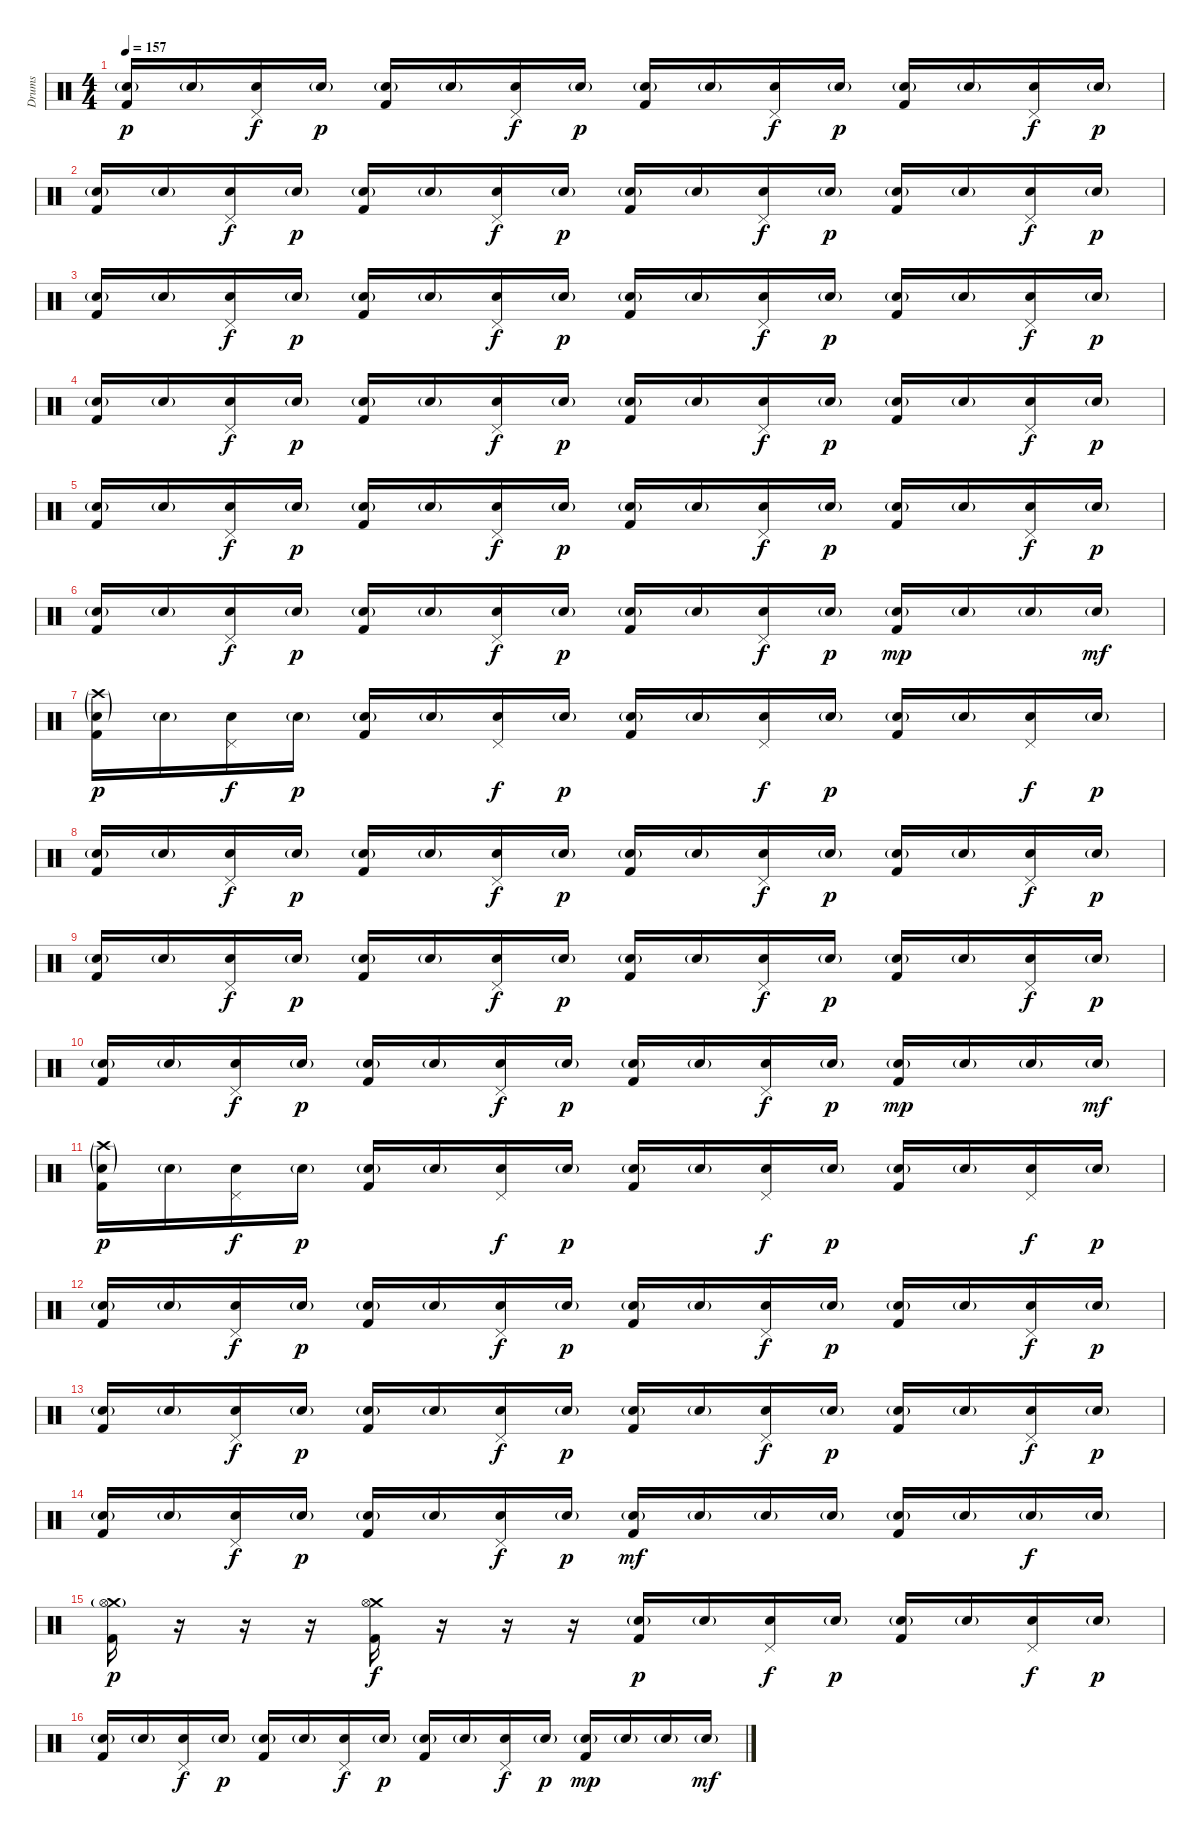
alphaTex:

\track ("Drums" "Drums") {instrument percussion}
\staff {score}
\articulation defaults
\ts (4 4)
\tempo 157
\clef neutral
\ks c
("Electric Snare (hit)"{g} "Kick (hit) 2").16{dy p} "Electric Snare (hit)"{g}.16 ("Pedal Hi-Hat (hit)" "Electric Snare (hit)").16{dy f} "Electric Snare (hit)"{g}.16{dy p} ("Electric Snare (hit)"{g} "Kick (hit) 2").16 "Electric Snare (hit)"{g}.16 ("Pedal Hi-Hat (hit)" "Electric Snare (hit)").16{dy f} "Electric Snare (hit)"{g}.16{dy p} ("Electric Snare (hit)"{g} "Kick (hit) 2").16 "Electric Snare (hit)"{g}.16 ("Pedal Hi-Hat (hit)" "Electric Snare (hit)").16{dy f} "Electric Snare (hit)"{g}.16{dy p} ("Electric Snare (hit)"{g} "Kick (hit) 2").16 "Electric Snare (hit)"{g}.16 ("Pedal Hi-Hat (hit)" "Electric Snare (hit)").16{dy f} "Electric Snare (hit)"{g}.16{dy p} |
("Electric Snare (hit)"{g} "Kick (hit) 2").16 "Electric Snare (hit)"{g}.16 ("Pedal Hi-Hat (hit)" "Electric Snare (hit)").16{dy f} "Electric Snare (hit)"{g}.16{dy p} ("Electric Snare (hit)"{g} "Kick (hit) 2").16 "Electric Snare (hit)"{g}.16 ("Pedal Hi-Hat (hit)" "Electric Snare (hit)").16{dy f} "Electric Snare (hit)"{g}.16{dy p} ("Electric Snare (hit)"{g} "Kick (hit) 2").16 "Electric Snare (hit)"{g}.16 ("Pedal Hi-Hat (hit)" "Electric Snare (hit)").16{dy f} "Electric Snare (hit)"{g}.16{dy p} ("Electric Snare (hit)"{g} "Kick (hit) 2").16 "Electric Snare (hit)"{g}.16 ("Pedal Hi-Hat (hit)" "Electric Snare (hit)").16{dy f} "Electric Snare (hit)"{g}.16{dy p} |
("Electric Snare (hit)"{g} "Kick (hit) 2").16 "Electric Snare (hit)"{g}.16 ("Pedal Hi-Hat (hit)" "Electric Snare (hit)").16{dy f} "Electric Snare (hit)"{g}.16{dy p} ("Electric Snare (hit)"{g} "Kick (hit) 2").16 "Electric Snare (hit)"{g}.16 ("Pedal Hi-Hat (hit)" "Electric Snare (hit)").16{dy f} "Electric Snare (hit)"{g}.16{dy p} ("Electric Snare (hit)"{g} "Kick (hit) 2").16 "Electric Snare (hit)"{g}.16 ("Pedal Hi-Hat (hit)" "Electric Snare (hit)").16{dy f} "Electric Snare (hit)"{g}.16{dy p} ("Electric Snare (hit)"{g} "Kick (hit) 2").16 "Electric Snare (hit)"{g}.16 ("Pedal Hi-Hat (hit)" "Electric Snare (hit)").16{dy f} "Electric Snare (hit)"{g}.16{dy p} |
("Electric Snare (hit)"{g} "Kick (hit) 2").16 "Electric Snare (hit)"{g}.16 ("Pedal Hi-Hat (hit)" "Electric Snare (hit)").16{dy f} "Electric Snare (hit)"{g}.16{dy p} ("Electric Snare (hit)"{g} "Kick (hit) 2").16 "Electric Snare (hit)"{g}.16 ("Pedal Hi-Hat (hit)" "Electric Snare (hit)").16{dy f} "Electric Snare (hit)"{g}.16{dy p} ("Electric Snare (hit)"{g} "Kick (hit) 2").16 "Electric Snare (hit)"{g}.16 ("Pedal Hi-Hat (hit)" "Electric Snare (hit)").16{dy f} "Electric Snare (hit)"{g}.16{dy p} ("Electric Snare (hit)"{g} "Kick (hit) 2").16 "Electric Snare (hit)"{g}.16 ("Pedal Hi-Hat (hit)" "Electric Snare (hit)").16{dy f} "Electric Snare (hit)"{g}.16{dy p} |
("Electric Snare (hit)"{g} "Kick (hit) 2").16 "Electric Snare (hit)"{g}.16 ("Pedal Hi-Hat (hit)" "Electric Snare (hit)").16{dy f} "Electric Snare (hit)"{g}.16{dy p} ("Electric Snare (hit)"{g} "Kick (hit) 2").16 "Electric Snare (hit)"{g}.16 ("Pedal Hi-Hat (hit)" "Electric Snare (hit)").16{dy f} "Electric Snare (hit)"{g}.16{dy p} ("Electric Snare (hit)"{g} "Kick (hit) 2").16 "Electric Snare (hit)"{g}.16 ("Pedal Hi-Hat (hit)" "Electric Snare (hit)").16{dy f} "Electric Snare (hit)"{g}.16{dy p} ("Electric Snare (hit)"{g} "Kick (hit) 2").16 "Electric Snare (hit)"{g}.16 ("Pedal Hi-Hat (hit)" "Electric Snare (hit)").16{dy f} "Electric Snare (hit)"{g}.16{dy p} |
("Electric Snare (hit)"{g} "Kick (hit) 2").16 "Electric Snare (hit)"{g}.16 ("Pedal Hi-Hat (hit)" "Electric Snare (hit)").16{dy f} "Electric Snare (hit)"{g}.16{dy p} ("Electric Snare (hit)"{g} "Kick (hit) 2").16 "Electric Snare (hit)"{g}.16 ("Pedal Hi-Hat (hit)" "Electric Snare (hit)").16{dy f} "Electric Snare (hit)"{g}.16{dy p} ("Electric Snare (hit)"{g} "Kick (hit) 2").16 "Electric Snare (hit)"{g}.16 ("Pedal Hi-Hat (hit)" "Electric Snare (hit)").16{dy f} "Electric Snare (hit)"{g}.16{dy p} ("Electric Snare (hit)"{g} "Kick (hit) 2").16{dy mp} "Electric Snare (hit)"{g}.16 "Electric Snare (hit)"{g}.16 "Electric Snare (hit)"{g}.16{dy mf} |
("Crash high (hit)"{g} "Electric Snare (hit)"{g} "Kick (hit) 2").16{dy p} "Electric Snare (hit)"{g}.16 ("Pedal Hi-Hat (hit)" "Electric Snare (hit)").16{dy f} "Electric Snare (hit)"{g}.16{dy p} ("Electric Snare (hit)"{g} "Kick (hit) 2").16 "Electric Snare (hit)"{g}.16 ("Pedal Hi-Hat (hit)" "Electric Snare (hit)").16{dy f} "Electric Snare (hit)"{g}.16{dy p} ("Electric Snare (hit)"{g} "Kick (hit) 2").16 "Electric Snare (hit)"{g}.16 ("Pedal Hi-Hat (hit)" "Electric Snare (hit)").16{dy f} "Electric Snare (hit)"{g}.16{dy p} ("Electric Snare (hit)"{g} "Kick (hit) 2").16 "Electric Snare (hit)"{g}.16 ("Pedal Hi-Hat (hit)" "Electric Snare (hit)").16{dy f} "Electric Snare (hit)"{g}.16{dy p} |
("Electric Snare (hit)"{g} "Kick (hit) 2").16 "Electric Snare (hit)"{g}.16 ("Pedal Hi-Hat (hit)" "Electric Snare (hit)").16{dy f} "Electric Snare (hit)"{g}.16{dy p} ("Electric Snare (hit)"{g} "Kick (hit) 2").16 "Electric Snare (hit)"{g}.16 ("Pedal Hi-Hat (hit)" "Electric Snare (hit)").16{dy f} "Electric Snare (hit)"{g}.16{dy p} ("Electric Snare (hit)"{g} "Kick (hit) 2").16 "Electric Snare (hit)"{g}.16 ("Pedal Hi-Hat (hit)" "Electric Snare (hit)").16{dy f} "Electric Snare (hit)"{g}.16{dy p} ("Electric Snare (hit)"{g} "Kick (hit) 2").16 "Electric Snare (hit)"{g}.16 ("Pedal Hi-Hat (hit)" "Electric Snare (hit)").16{dy f} "Electric Snare (hit)"{g}.16{dy p} |
("Electric Snare (hit)"{g} "Kick (hit) 2").16 "Electric Snare (hit)"{g}.16 ("Pedal Hi-Hat (hit)" "Electric Snare (hit)").16{dy f} "Electric Snare (hit)"{g}.16{dy p} ("Electric Snare (hit)"{g} "Kick (hit) 2").16 "Electric Snare (hit)"{g}.16 ("Pedal Hi-Hat (hit)" "Electric Snare (hit)").16{dy f} "Electric Snare (hit)"{g}.16{dy p} ("Electric Snare (hit)"{g} "Kick (hit) 2").16 "Electric Snare (hit)"{g}.16 ("Pedal Hi-Hat (hit)" "Electric Snare (hit)").16{dy f} "Electric Snare (hit)"{g}.16{dy p} ("Electric Snare (hit)"{g} "Kick (hit) 2").16 "Electric Snare (hit)"{g}.16 ("Pedal Hi-Hat (hit)" "Electric Snare (hit)").16{dy f} "Electric Snare (hit)"{g}.16{dy p} |
("Electric Snare (hit)"{g} "Kick (hit) 2").16 "Electric Snare (hit)"{g}.16 ("Pedal Hi-Hat (hit)" "Electric Snare (hit)").16{dy f} "Electric Snare (hit)"{g}.16{dy p} ("Electric Snare (hit)"{g} "Kick (hit) 2").16 "Electric Snare (hit)"{g}.16 ("Pedal Hi-Hat (hit)" "Electric Snare (hit)").16{dy f} "Electric Snare (hit)"{g}.16{dy p} ("Electric Snare (hit)"{g} "Kick (hit) 2").16 "Electric Snare (hit)"{g}.16 ("Pedal Hi-Hat (hit)" "Electric Snare (hit)").16{dy f} "Electric Snare (hit)"{g}.16{dy p} ("Electric Snare (hit)"{g} "Kick (hit) 2").16{dy mp} "Electric Snare (hit)"{g}.16 "Electric Snare (hit)"{g}.16 "Electric Snare (hit)"{g}.16{dy mf} |
("Crash high (hit)"{g} "Electric Snare (hit)"{g} "Kick (hit) 2").16{dy p} "Electric Snare (hit)"{g}.16 ("Pedal Hi-Hat (hit)" "Electric Snare (hit)").16{dy f} "Electric Snare (hit)"{g}.16{dy p} ("Electric Snare (hit)"{g} "Kick (hit) 2").16 "Electric Snare (hit)"{g}.16 ("Pedal Hi-Hat (hit)" "Electric Snare (hit)").16{dy f} "Electric Snare (hit)"{g}.16{dy p} ("Electric Snare (hit)"{g} "Kick (hit) 2").16 "Electric Snare (hit)"{g}.16 ("Pedal Hi-Hat (hit)" "Electric Snare (hit)").16{dy f} "Electric Snare (hit)"{g}.16{dy p} ("Electric Snare (hit)"{g} "Kick (hit) 2").16 "Electric Snare (hit)"{g}.16 ("Pedal Hi-Hat (hit)" "Electric Snare (hit)").16{dy f} "Electric Snare (hit)"{g}.16{dy p} |
("Electric Snare (hit)"{g} "Kick (hit) 2").16 "Electric Snare (hit)"{g}.16 ("Pedal Hi-Hat (hit)" "Electric Snare (hit)").16{dy f} "Electric Snare (hit)"{g}.16{dy p} ("Electric Snare (hit)"{g} "Kick (hit) 2").16 "Electric Snare (hit)"{g}.16 ("Pedal Hi-Hat (hit)" "Electric Snare (hit)").16{dy f} "Electric Snare (hit)"{g}.16{dy p} ("Electric Snare (hit)"{g} "Kick (hit) 2").16 "Electric Snare (hit)"{g}.16 ("Pedal Hi-Hat (hit)" "Electric Snare (hit)").16{dy f} "Electric Snare (hit)"{g}.16{dy p} ("Electric Snare (hit)"{g} "Kick (hit) 2").16 "Electric Snare (hit)"{g}.16 ("Pedal Hi-Hat (hit)" "Electric Snare (hit)").16{dy f} "Electric Snare (hit)"{g}.16{dy p} |
("Electric Snare (hit)"{g} "Kick (hit) 2").16 "Electric Snare (hit)"{g}.16 ("Pedal Hi-Hat (hit)" "Electric Snare (hit)").16{dy f} "Electric Snare (hit)"{g}.16{dy p} ("Electric Snare (hit)"{g} "Kick (hit) 2").16 "Electric Snare (hit)"{g}.16 ("Pedal Hi-Hat (hit)" "Electric Snare (hit)").16{dy f} "Electric Snare (hit)"{g}.16{dy p} ("Electric Snare (hit)"{g} "Kick (hit) 2").16 "Electric Snare (hit)"{g}.16 ("Pedal Hi-Hat (hit)" "Electric Snare (hit)").16{dy f} "Electric Snare (hit)"{g}.16{dy p} ("Electric Snare (hit)"{g} "Kick (hit) 2").16 "Electric Snare (hit)"{g}.16 ("Pedal Hi-Hat (hit)" "Electric Snare (hit)").16{dy f} "Electric Snare (hit)"{g}.16{dy p} |
("Electric Snare (hit)"{g} "Kick (hit) 2").16 "Electric Snare (hit)"{g}.16 ("Pedal Hi-Hat (hit)" "Electric Snare (hit)").16{dy f} "Electric Snare (hit)"{g}.16{dy p} ("Electric Snare (hit)"{g} "Kick (hit) 2").16 "Electric Snare (hit)"{g}.16 ("Pedal Hi-Hat (hit)" "Electric Snare (hit)").16{dy f} "Electric Snare (hit)"{g}.16{dy p} ("Electric Snare (hit)"{g} "Kick (hit) 2").16{dy mf} "Electric Snare (hit)"{g}.16 "Electric Snare (hit)"{g}.16 "Electric Snare (hit)"{g}.16 ("Electric Snare (hit)"{g} "Kick (hit) 2").16 "Electric Snare (hit)"{g}.16 "Electric Snare (hit)"{g}.16{dy f} "Electric Snare (hit)"{g}.16 |
("Crash medium (hit)" "Hi-Hat (open)"{g} "Kick (hit) 2").16{dy p} r.16 r.16 r.16 ("Crash medium (hit)" "Hi-Hat (open)" "Kick (hit) 2").16{dy f} r.16 r.16 r.16 ("Electric Snare (hit)"{g} "Kick (hit) 2").16{dy p} "Electric Snare (hit)"{g}.16 ("Pedal Hi-Hat (hit)" "Electric Snare (hit)").16{dy f} "Electric Snare (hit)"{g}.16{dy p} ("Electric Snare (hit)"{g} "Kick (hit) 2").16 "Electric Snare (hit)"{g}.16 ("Pedal Hi-Hat (hit)" "Electric Snare (hit)").16{dy f} "Electric Snare (hit)"{g}.16{dy p} |
("Electric Snare (hit)"{g} "Kick (hit) 2").16 "Electric Snare (hit)"{g}.16 ("Pedal Hi-Hat (hit)" "Electric Snare (hit)").16{dy f} "Electric Snare (hit)"{g}.16{dy p} ("Electric Snare (hit)"{g} "Kick (hit) 2").16 "Electric Snare (hit)"{g}.16 ("Pedal Hi-Hat (hit)" "Electric Snare (hit)").16{dy f} "Electric Snare (hit)"{g}.16{dy p} ("Electric Snare (hit)"{g} "Kick (hit) 2").16 "Electric Snare (hit)"{g}.16 ("Pedal Hi-Hat (hit)" "Electric Snare (hit)").16{dy f} "Electric Snare (hit)"{g}.16{dy p} ("Electric Snare (hit)"{g} "Kick (hit) 2").16{dy mp} "Electric Snare (hit)"{g}.16 "Electric Snare (hit)"{g}.16 "Electric Snare (hit)"{g}.16{dy mf}
